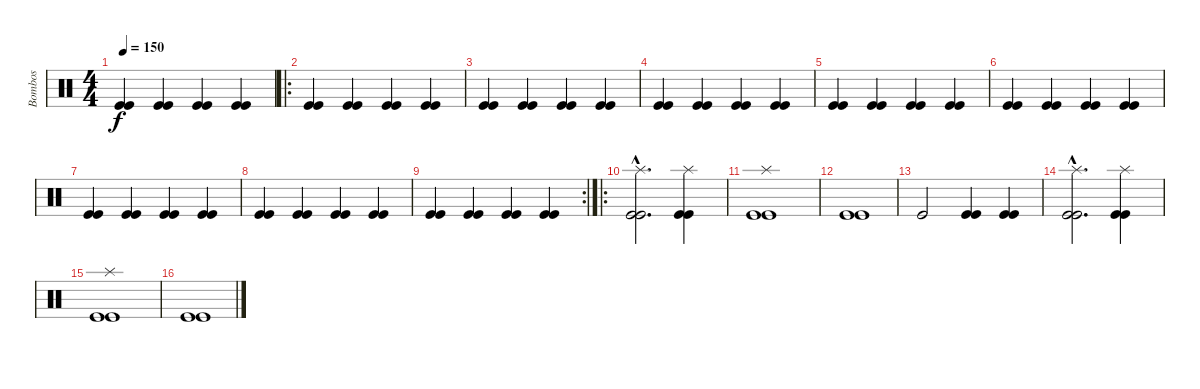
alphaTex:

\track ("Bombos" "Bombos") {instrument percussion}
\staff {score}
\articulation defaults
\ts (4 4)
\tempo 150
\clef neutral
\ks c
("Kick (hit)" "Kick (hit)").4{dy f} ("Kick (hit)" "Kick (hit)").4 ("Kick (hit)" "Kick (hit)").4 ("Kick (hit)" "Kick (hit)").4 |
\ro
("Kick (hit)" "Kick (hit)").4 ("Kick (hit)" "Kick (hit)").4 ("Kick (hit)" "Kick (hit)").4 ("Kick (hit)" "Kick (hit)").4 |
("Kick (hit)" "Kick (hit)").4 ("Kick (hit)" "Kick (hit)").4 ("Kick (hit)" "Kick (hit)").4 ("Kick (hit)" "Kick (hit)").4 |
("Kick (hit)" "Kick (hit)").4 ("Kick (hit)" "Kick (hit)").4 ("Kick (hit)" "Kick (hit)").4 ("Kick (hit)" "Kick (hit)").4 |
("Kick (hit)" "Kick (hit)").4 ("Kick (hit)" "Kick (hit)").4 ("Kick (hit)" "Kick (hit)").4 ("Kick (hit)" "Kick (hit)").4 |
("Kick (hit)" "Kick (hit)").4 ("Kick (hit)" "Kick (hit)").4 ("Kick (hit)" "Kick (hit)").4 ("Kick (hit)" "Kick (hit)").4 |
("Kick (hit)" "Kick (hit)").4 ("Kick (hit)" "Kick (hit)").4 ("Kick (hit)" "Kick (hit)").4 ("Kick (hit)" "Kick (hit)").4 |
("Kick (hit)" "Kick (hit)").4 ("Kick (hit)" "Kick (hit)").4 ("Kick (hit)" "Kick (hit)").4 ("Kick (hit)" "Kick (hit)").4 |
\rc 2
("Kick (hit)" "Kick (hit)").4 ("Kick (hit)" "Kick (hit)").4 ("Kick (hit)" "Kick (hit)").4 ("Kick (hit)" "Kick (hit)").4 |
\ro
("Splash (hit)"{hac} "Kick (hit)"{hac} "Kick (hit)"{hac}).2{d} ("Splash (hit)" "Kick (hit)" "Kick (hit)").4 |
("Splash (hit)" "Kick (hit)" "Kick (hit)").1 |
("Kick (hit)" "Kick (hit)").1 |
"Kick (hit)".2 ("Kick (hit)" "Kick (hit)").4 ("Kick (hit)" "Kick (hit)").4 |
("Splash (hit)"{hac} "Kick (hit)"{hac} "Kick (hit)"{hac}).2{d} ("Splash (hit)" "Kick (hit)" "Kick (hit)").4 |
("Splash (hit)" "Kick (hit)" "Kick (hit)").1 |
("Kick (hit)" "Kick (hit)").1
